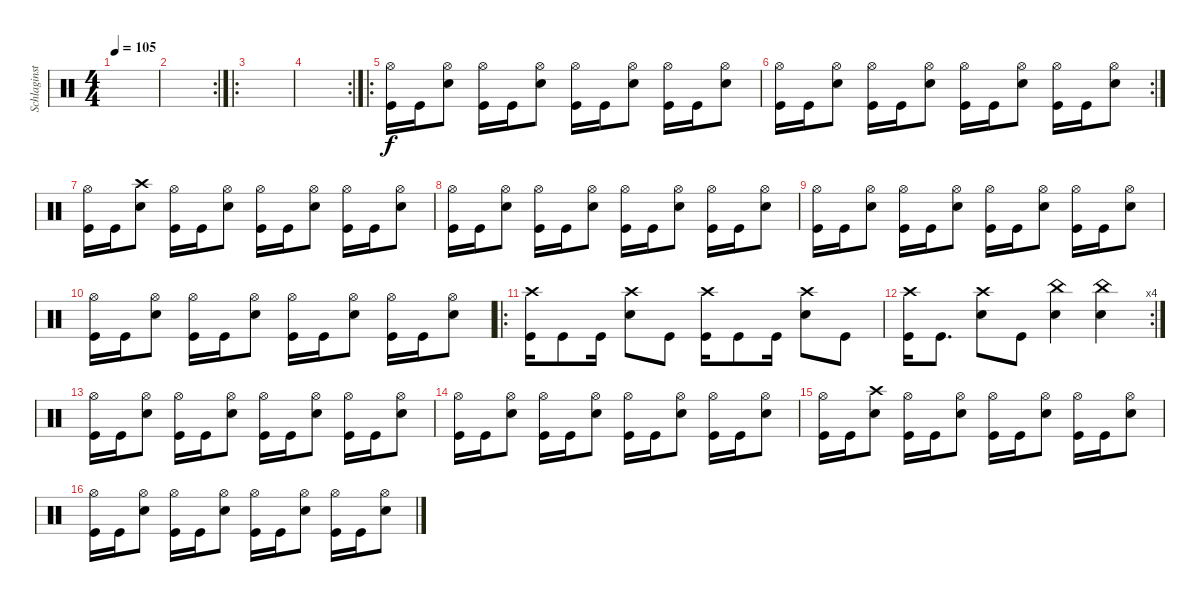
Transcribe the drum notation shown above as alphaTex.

\track ("Schlaginstrumente - Auswahl" "Schlaginst") {instrument percussion}
\staff {score}
\articulation defaults
\ts (4 4)
\tempo 105
\clef neutral
\ks c
|
\rc 2
|
\ro
|
\rc 2
|
\ro
("Hi-Hat (open)" "Kick (hit)").16 "Kick (hit)".16 ("Hi-Hat (open)" "Snare (hit) 2").8 ("Hi-Hat (open)" "Kick (hit)").16 "Kick (hit)".16 ("Hi-Hat (open)" "Snare (hit) 2").8 ("Hi-Hat (open)" "Kick (hit)").16 "Kick (hit)".16 ("Hi-Hat (open)" "Snare (hit) 2").8 ("Hi-Hat (open)" "Kick (hit)").16 "Kick (hit)".16 ("Hi-Hat (open)" "Snare (hit) 2").8 |
\rc 2
("Hi-Hat (open)" "Kick (hit)").16 "Kick (hit)".16 ("Hi-Hat (open)" "Snare (hit) 2").8 ("Hi-Hat (open)" "Kick (hit)").16 "Kick (hit)".16 ("Hi-Hat (open)" "Snare (hit) 2").8 ("Hi-Hat (open)" "Kick (hit)").16 "Kick (hit)".16 ("Hi-Hat (open)" "Snare (hit) 2").8 ("Hi-Hat (open)" "Kick (hit)").16 "Kick (hit)".16 ("Hi-Hat (open)" "Snare (hit) 2").8 |
("Hi-Hat (open)" "Kick (hit)").16 "Kick (hit)".16 ("Crash high (hit)" "Snare (hit) 2").8 ("Hi-Hat (open)" "Kick (hit)").16 "Kick (hit)".16 ("Hi-Hat (open)" "Snare (hit) 2").8 ("Hi-Hat (open)" "Kick (hit)").16 "Kick (hit)".16 ("Hi-Hat (open)" "Snare (hit) 2").8 ("Hi-Hat (open)" "Kick (hit)").16 "Kick (hit)".16 ("Hi-Hat (open)" "Snare (hit) 2").8 |
("Hi-Hat (open)" "Kick (hit)").16 "Kick (hit)".16 ("Hi-Hat (open)" "Snare (hit) 2").8 ("Hi-Hat (open)" "Kick (hit)").16 "Kick (hit)".16 ("Hi-Hat (open)" "Snare (hit) 2").8 ("Hi-Hat (open)" "Kick (hit)").16 "Kick (hit)".16 ("Hi-Hat (open)" "Snare (hit) 2").8 ("Hi-Hat (open)" "Kick (hit)").16 "Kick (hit)".16 ("Hi-Hat (open)" "Snare (hit) 2").8 |
("Hi-Hat (open)" "Kick (hit)").16 "Kick (hit)".16 ("Hi-Hat (open)" "Snare (hit) 2").8 ("Hi-Hat (open)" "Kick (hit)").16 "Kick (hit)".16 ("Hi-Hat (open)" "Snare (hit) 2").8 ("Hi-Hat (open)" "Kick (hit)").16 "Kick (hit)".16 ("Hi-Hat (open)" "Snare (hit) 2").8 ("Hi-Hat (open)" "Kick (hit)").16 "Kick (hit)".16 ("Hi-Hat (open)" "Snare (hit) 2").8 |
("Hi-Hat (open)" "Kick (hit)").16 "Kick (hit)".16 ("Hi-Hat (open)" "Snare (hit) 2").8 ("Hi-Hat (open)" "Kick (hit)").16 "Kick (hit)".16 ("Hi-Hat (open)" "Snare (hit) 2").8 ("Hi-Hat (open)" "Kick (hit)").16 "Kick (hit)".16 ("Hi-Hat (open)" "Snare (hit) 2").8 ("Hi-Hat (open)" "Kick (hit)").16 "Kick (hit)".16 ("Hi-Hat (open)" "Snare (hit) 2").8 |
\ro
("Crash high (hit)" "Kick (hit)").16 "Kick (hit)".8 "Kick (hit)".16 ("Crash high (hit)" "Snare (hit) 2").8 "Kick (hit)".8 ("Crash high (hit)" "Kick (hit)").16 "Kick (hit)".8 "Kick (hit)".16 ("Crash high (hit)" "Snare (hit) 2").8 "Kick (hit)".8 |
\rc 4
("Crash high (hit)" "Kick (hit)").16 "Kick (hit)".8{d} ("Crash high (hit)" "Snare (hit) 2").8 "Kick (hit)".8 ("China (hit)" "Snare (hit) 2").4 ("China (hit)" "Snare (hit) 2").4 |
("Hi-Hat (open)" "Kick (hit)").16 "Kick (hit)".16 ("Hi-Hat (open)" "Snare (hit) 2").8 ("Hi-Hat (open)" "Kick (hit)").16 "Kick (hit)".16 ("Hi-Hat (open)" "Snare (hit) 2").8 ("Hi-Hat (open)" "Kick (hit)").16 "Kick (hit)".16 ("Hi-Hat (open)" "Snare (hit) 2").8 ("Hi-Hat (open)" "Kick (hit)").16 "Kick (hit)".16 ("Hi-Hat (open)" "Snare (hit) 2").8 |
("Hi-Hat (open)" "Kick (hit)").16 "Kick (hit)".16 ("Hi-Hat (open)" "Snare (hit) 2").8 ("Hi-Hat (open)" "Kick (hit)").16 "Kick (hit)".16 ("Hi-Hat (open)" "Snare (hit) 2").8 ("Hi-Hat (open)" "Kick (hit)").16 "Kick (hit)".16 ("Hi-Hat (open)" "Snare (hit) 2").8 ("Hi-Hat (open)" "Kick (hit)").16 "Kick (hit)".16 ("Hi-Hat (open)" "Snare (hit) 2").8 |
("Hi-Hat (open)" "Kick (hit)").16 "Kick (hit)".16 ("Crash high (hit)" "Snare (hit) 2").8 ("Hi-Hat (open)" "Kick (hit)").16 "Kick (hit)".16 ("Hi-Hat (open)" "Snare (hit) 2").8 ("Hi-Hat (open)" "Kick (hit)").16 "Kick (hit)".16 ("Hi-Hat (open)" "Snare (hit) 2").8 ("Hi-Hat (open)" "Kick (hit)").16 "Kick (hit)".16 ("Hi-Hat (open)" "Snare (hit) 2").8 |
("Hi-Hat (open)" "Kick (hit)").16 "Kick (hit)".16 ("Hi-Hat (open)" "Snare (hit) 2").8 ("Hi-Hat (open)" "Kick (hit)").16 "Kick (hit)".16 ("Hi-Hat (open)" "Snare (hit) 2").8 ("Hi-Hat (open)" "Kick (hit)").16 "Kick (hit)".16 ("Hi-Hat (open)" "Snare (hit) 2").8 ("Hi-Hat (open)" "Kick (hit)").16 "Kick (hit)".16 ("Hi-Hat (open)" "Snare (hit) 2").8
